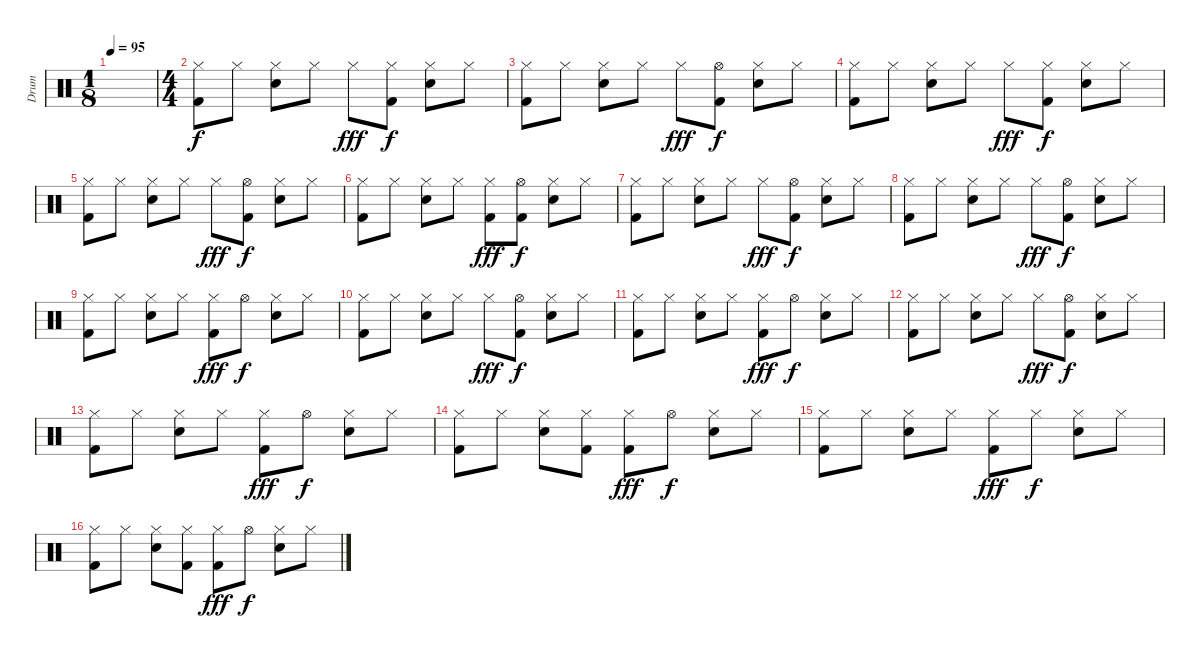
\track ("Drum" "Drum") {instrument percussion}
\staff {score}
\articulation defaults
\ts (1 8)
\tempo 95
\clef neutral
\ks c
|
\ts (4 4)
("Hi-Hat (closed)" "Kick (hit) 2").8 "Hi-Hat (closed)".8 ("Hi-Hat (closed)" "Snare (hit) 2").8 "Hi-Hat (closed)".8 "Hi-Hat (closed)".8{dy fff} ("Hi-Hat (closed)" "Kick (hit) 2").8{dy f} ("Hi-Hat (closed)" "Snare (hit) 2").8 "Hi-Hat (closed)".8 |
("Hi-Hat (closed)" "Kick (hit) 2").8 "Hi-Hat (closed)".8 ("Hi-Hat (closed)" "Snare (hit) 2").8 "Hi-Hat (closed)".8 "Hi-Hat (closed)".8{dy fff} ("Hi-Hat (open)" "Kick (hit) 2").8{dy f} ("Hi-Hat (closed)" "Snare (hit) 2").8 "Hi-Hat (closed)".8 |
("Hi-Hat (closed)" "Kick (hit) 2").8 "Hi-Hat (closed)".8 ("Hi-Hat (closed)" "Snare (hit) 2").8 "Hi-Hat (closed)".8 "Hi-Hat (closed)".8{dy fff} ("Hi-Hat (closed)" "Kick (hit) 2").8{dy f} ("Hi-Hat (closed)" "Snare (hit) 2").8 "Hi-Hat (closed)".8 |
("Hi-Hat (closed)" "Kick (hit) 2").8 "Hi-Hat (closed)".8 ("Hi-Hat (closed)" "Snare (hit) 2").8 "Hi-Hat (closed)".8 "Hi-Hat (closed)".8{dy fff} ("Hi-Hat (open)" "Kick (hit) 2").8{dy f} ("Hi-Hat (closed)" "Snare (hit) 2").8 "Hi-Hat (closed)".8 |
("Hi-Hat (closed)" "Kick (hit) 2").8 "Hi-Hat (closed)".8 ("Hi-Hat (closed)" "Snare (hit) 2").8 "Hi-Hat (closed)".8 ("Hi-Hat (closed)" "Kick (hit) 2").8{dy fff} ("Hi-Hat (open)" "Kick (hit) 2").8{dy f} ("Hi-Hat (closed)" "Snare (hit) 2").8 "Hi-Hat (closed)".8 |
("Hi-Hat (closed)" "Kick (hit) 2").8 "Hi-Hat (closed)".8 ("Hi-Hat (closed)" "Snare (hit) 2").8 "Hi-Hat (closed)".8 "Hi-Hat (closed)".8{dy fff} ("Hi-Hat (open)" "Kick (hit) 2").8{dy f} ("Hi-Hat (closed)" "Snare (hit) 2").8 "Hi-Hat (closed)".8 |
("Hi-Hat (closed)" "Kick (hit) 2").8 "Hi-Hat (closed)".8 ("Hi-Hat (closed)" "Snare (hit) 2").8 "Hi-Hat (closed)".8 "Hi-Hat (closed)".8{dy fff} ("Hi-Hat (open)" "Kick (hit) 2").8{dy f} ("Hi-Hat (closed)" "Snare (hit) 2").8 "Hi-Hat (closed)".8 |
("Hi-Hat (closed)" "Kick (hit) 2").8 "Hi-Hat (closed)".8 ("Hi-Hat (closed)" "Snare (hit) 2").8 "Hi-Hat (closed)".8 ("Hi-Hat (closed)" "Kick (hit) 2").8{dy fff} "Hi-Hat (open)".8{dy f} ("Hi-Hat (closed)" "Snare (hit) 2").8 "Hi-Hat (closed)".8 |
("Hi-Hat (closed)" "Kick (hit) 2").8 "Hi-Hat (closed)".8 ("Hi-Hat (closed)" "Snare (hit) 2").8 "Hi-Hat (closed)".8 "Hi-Hat (closed)".8{dy fff} ("Hi-Hat (open)" "Kick (hit) 2").8{dy f} ("Hi-Hat (closed)" "Snare (hit) 2").8 "Hi-Hat (closed)".8 |
("Hi-Hat (closed)" "Kick (hit) 2").8 "Hi-Hat (closed)".8 ("Hi-Hat (closed)" "Snare (hit) 2").8 "Hi-Hat (closed)".8 ("Hi-Hat (closed)" "Kick (hit) 2").8{dy fff} "Hi-Hat (open)".8{dy f} ("Hi-Hat (closed)" "Snare (hit) 2").8 "Hi-Hat (closed)".8 |
("Hi-Hat (closed)" "Kick (hit) 2").8 "Hi-Hat (closed)".8 ("Hi-Hat (closed)" "Snare (hit) 2").8 "Hi-Hat (closed)".8 "Hi-Hat (closed)".8{dy fff} ("Hi-Hat (open)" "Kick (hit) 2").8{dy f} ("Hi-Hat (closed)" "Snare (hit) 2").8 "Hi-Hat (closed)".8 |
("Hi-Hat (closed)" "Kick (hit) 2").8 "Hi-Hat (closed)".8 ("Hi-Hat (closed)" "Snare (hit) 2").8 "Hi-Hat (closed)".8 ("Hi-Hat (closed)" "Kick (hit) 2").8{dy fff} "Hi-Hat (open)".8{dy f} ("Hi-Hat (closed)" "Snare (hit) 2").8 "Hi-Hat (closed)".8 |
("Hi-Hat (closed)" "Kick (hit) 2").8 "Hi-Hat (closed)".8 ("Hi-Hat (closed)" "Snare (hit) 2").8 ("Hi-Hat (closed)" "Kick (hit) 2").8 ("Hi-Hat (closed)" "Kick (hit) 2").8{dy fff} "Hi-Hat (open)".8{dy f} ("Hi-Hat (closed)" "Snare (hit) 2").8 "Hi-Hat (closed)".8 |
("Hi-Hat (closed)" "Kick (hit) 2").8 "Hi-Hat (closed)".8 ("Hi-Hat (closed)" "Snare (hit) 2").8 "Hi-Hat (closed)".8 ("Hi-Hat (closed)" "Kick (hit) 2").8{dy fff} "Hi-Hat (closed)".8{dy f} ("Hi-Hat (closed)" "Snare (hit) 2").8 "Hi-Hat (closed)".8 |
("Hi-Hat (closed)" "Kick (hit) 2").8 "Hi-Hat (closed)".8 ("Hi-Hat (closed)" "Snare (hit) 2").8 ("Hi-Hat (closed)" "Kick (hit) 2").8 ("Hi-Hat (closed)" "Kick (hit) 2").8{dy fff} "Hi-Hat (open)".8{dy f} ("Hi-Hat (closed)" "Snare (hit) 2").8 "Hi-Hat (closed)".8
